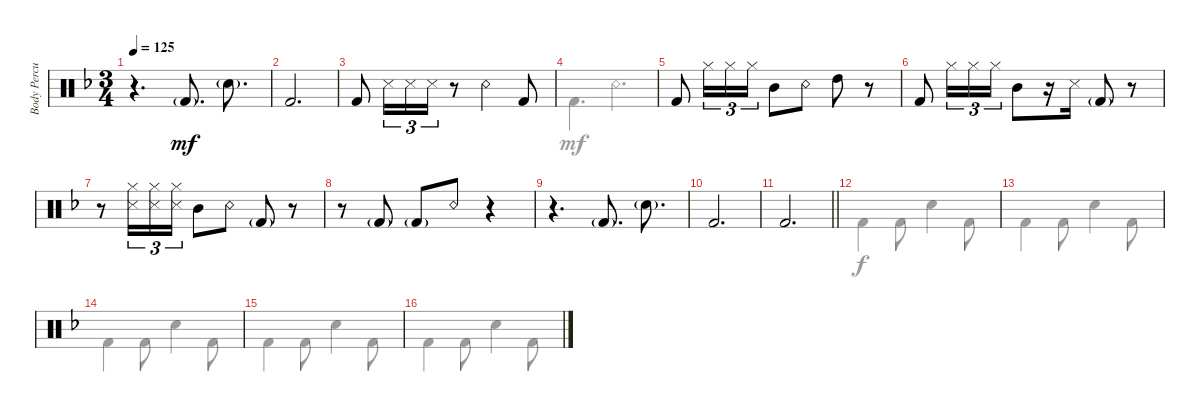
\track ("Body Percussion" "Body Percu") {instrument percussion}
\staff {score}
\articulation defaults
\voice
\ts (3 4)
\tempo 125
\clef neutral
\ks dminor
r.4{d dy mf} "Kick (hit) 2"{g}.8{d} "Snare (hit) 2"{g}.8{d} |
"Kick (hit) 2".2{d} |
"Kick (hit) 2".8 "Snare (side stick) 3".16{tu (3 2)} "Snare (side stick) 3".16{tu (3 2)} "Snare (side stick) 3".16{tu (3 2)} r.8 "Snare (rim shot)".4 "Kick (hit) 2".8 |
|
"Kick (hit) 2".8 "Hi-Hat (closed)".16{tu (3 2)} "Hi-Hat (closed)".16{tu (3 2)} "Hi-Hat (closed)".16{tu (3 2)} "Mid Tom (hit)".8 "Snare (rim shot)".8 "High Tom (hit)".8 r.8 |
"Kick (hit) 2".8 "Hi-Hat (closed)".16{tu (3 2)} "Hi-Hat (closed)".16{tu (3 2)} "Hi-Hat (closed)".16{tu (3 2)} "Mid Tom (hit)".8 r.16 "Snare (side stick) 3".16 "Kick (hit) 2"{g}.8 r.8 |
r.8 ("Hi-Hat (closed)" "Snare (side stick) 3").16{tu (3 2)} ("Hi-Hat (closed)" "Snare (side stick) 3").16{tu (3 2)} ("Hi-Hat (closed)" "Snare (side stick) 3").16{tu (3 2)} "Mid Tom (hit)".8 "Snare (rim shot)".8 "Kick (hit) 2"{g}.8 r.8 |
r.8 "Kick (hit) 2"{g}.8 "Kick (hit) 2"{g}.8 "Snare (rim shot)".8 r.4 |
r.4{d} "Kick (hit) 2"{g}.8{d} "Snare (hit) 2"{g}.8{d} |
"Kick (hit) 2".2{d} |
\barLineRight lightlight "Kick (hit) 2".2{d}
|
|
|
|
|
\voice
\clef neutral
\ottava regular
\simile none
\ks dminor
|
|
|
"Kick (hit) 2".4{d} "Snare (rim shot)".4{d} |
|
|
|
|
|
|
\barLineRight lightlight
|
"Kick (hit) 2".4{dy f} "Kick (hit) 2".8 "Snare (hit) 2".4 "Kick (hit) 2".8 |
"Kick (hit) 2".4 "Kick (hit) 2".8 "Snare (hit) 2".4 "Kick (hit) 2".8 |
"Kick (hit) 2".4 "Kick (hit) 2".8 "Snare (hit) 2".4 "Kick (hit) 2".8 |
"Kick (hit) 2".4 "Kick (hit) 2".8 "Snare (hit) 2".4 "Kick (hit) 2".8 |
"Kick (hit) 2".4 "Kick (hit) 2".8 "Snare (hit) 2".4 "Kick (hit) 2".8
